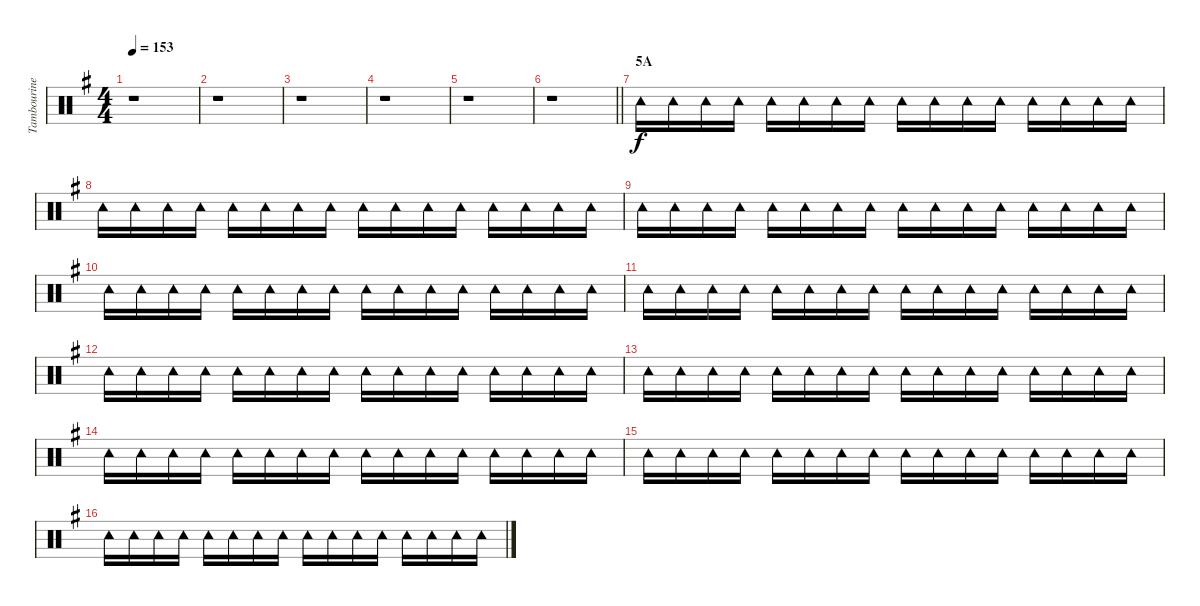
\track ("Tambourine" "Tambourine") {instrument percussion}
\staff {score}
\articulation defaults
\ts (4 4)
\tempo 153
\clef neutral
\ks g
r.1{dy f} |
r.1 |
r.1 |
r.1 |
r.1 |
\barLineRight lightlight
r.1 |
\section ("" "5A")
"Tambourine (hit)".16 "Tambourine (hit)".16 "Tambourine (hit)".16 "Tambourine (hit)".16 "Tambourine (hit)".16 "Tambourine (hit)".16 "Tambourine (hit)".16 "Tambourine (hit)".16 "Tambourine (hit)".16 "Tambourine (hit)".16 "Tambourine (hit)".16 "Tambourine (hit)".16 "Tambourine (hit)".16 "Tambourine (hit)".16 "Tambourine (hit)".16 "Tambourine (hit)".16 |
"Tambourine (hit)".16 "Tambourine (hit)".16 "Tambourine (hit)".16 "Tambourine (hit)".16 "Tambourine (hit)".16 "Tambourine (hit)".16 "Tambourine (hit)".16 "Tambourine (hit)".16 "Tambourine (hit)".16 "Tambourine (hit)".16 "Tambourine (hit)".16 "Tambourine (hit)".16 "Tambourine (hit)".16 "Tambourine (hit)".16 "Tambourine (hit)".16 "Tambourine (hit)".16 |
"Tambourine (hit)".16 "Tambourine (hit)".16 "Tambourine (hit)".16 "Tambourine (hit)".16 "Tambourine (hit)".16 "Tambourine (hit)".16 "Tambourine (hit)".16 "Tambourine (hit)".16 "Tambourine (hit)".16 "Tambourine (hit)".16 "Tambourine (hit)".16 "Tambourine (hit)".16 "Tambourine (hit)".16 "Tambourine (hit)".16 "Tambourine (hit)".16 "Tambourine (hit)".16 |
"Tambourine (hit)".16 "Tambourine (hit)".16 "Tambourine (hit)".16 "Tambourine (hit)".16 "Tambourine (hit)".16 "Tambourine (hit)".16 "Tambourine (hit)".16 "Tambourine (hit)".16 "Tambourine (hit)".16 "Tambourine (hit)".16 "Tambourine (hit)".16 "Tambourine (hit)".16 "Tambourine (hit)".16 "Tambourine (hit)".16 "Tambourine (hit)".16 "Tambourine (hit)".16 |
"Tambourine (hit)".16 "Tambourine (hit)".16 "Tambourine (hit)".16 "Tambourine (hit)".16 "Tambourine (hit)".16 "Tambourine (hit)".16 "Tambourine (hit)".16 "Tambourine (hit)".16 "Tambourine (hit)".16 "Tambourine (hit)".16 "Tambourine (hit)".16 "Tambourine (hit)".16 "Tambourine (hit)".16 "Tambourine (hit)".16 "Tambourine (hit)".16 "Tambourine (hit)".16 |
"Tambourine (hit)".16 "Tambourine (hit)".16 "Tambourine (hit)".16 "Tambourine (hit)".16 "Tambourine (hit)".16 "Tambourine (hit)".16 "Tambourine (hit)".16 "Tambourine (hit)".16 "Tambourine (hit)".16 "Tambourine (hit)".16 "Tambourine (hit)".16 "Tambourine (hit)".16 "Tambourine (hit)".16 "Tambourine (hit)".16 "Tambourine (hit)".16 "Tambourine (hit)".16 |
"Tambourine (hit)".16 "Tambourine (hit)".16 "Tambourine (hit)".16 "Tambourine (hit)".16 "Tambourine (hit)".16 "Tambourine (hit)".16 "Tambourine (hit)".16 "Tambourine (hit)".16 "Tambourine (hit)".16 "Tambourine (hit)".16 "Tambourine (hit)".16 "Tambourine (hit)".16 "Tambourine (hit)".16 "Tambourine (hit)".16 "Tambourine (hit)".16 "Tambourine (hit)".16 |
"Tambourine (hit)".16 "Tambourine (hit)".16 "Tambourine (hit)".16 "Tambourine (hit)".16 "Tambourine (hit)".16 "Tambourine (hit)".16 "Tambourine (hit)".16 "Tambourine (hit)".16 "Tambourine (hit)".16 "Tambourine (hit)".16 "Tambourine (hit)".16 "Tambourine (hit)".16 "Tambourine (hit)".16 "Tambourine (hit)".16 "Tambourine (hit)".16 "Tambourine (hit)".16 |
"Tambourine (hit)".16 "Tambourine (hit)".16 "Tambourine (hit)".16 "Tambourine (hit)".16 "Tambourine (hit)".16 "Tambourine (hit)".16 "Tambourine (hit)".16 "Tambourine (hit)".16 "Tambourine (hit)".16 "Tambourine (hit)".16 "Tambourine (hit)".16 "Tambourine (hit)".16 "Tambourine (hit)".16 "Tambourine (hit)".16 "Tambourine (hit)".16 "Tambourine (hit)".16 |
"Tambourine (hit)".16 "Tambourine (hit)".16 "Tambourine (hit)".16 "Tambourine (hit)".16 "Tambourine (hit)".16 "Tambourine (hit)".16 "Tambourine (hit)".16 "Tambourine (hit)".16 "Tambourine (hit)".16 "Tambourine (hit)".16 "Tambourine (hit)".16 "Tambourine (hit)".16 "Tambourine (hit)".16 "Tambourine (hit)".16 "Tambourine (hit)".16 "Tambourine (hit)".16
